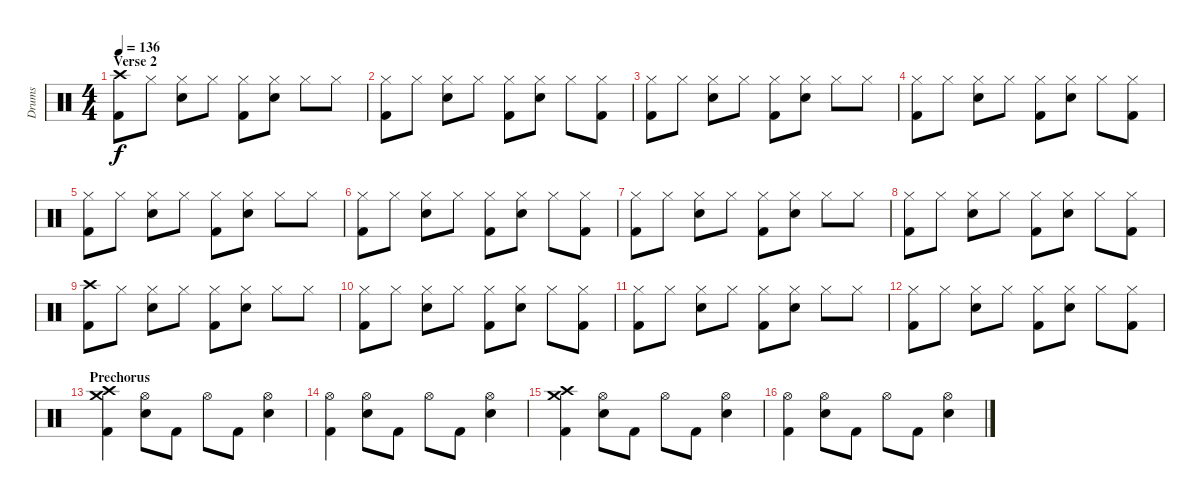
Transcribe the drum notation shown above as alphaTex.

\track ("Drums" "Drums") {instrument percussion}
\staff {score}
\articulation defaults
\ts (4 4)
\section ("" "Verse 2")
\tempo 136
\clef neutral
\ks c
("Crash high (hit)" "Kick (hit) 2").8{dy f} "Hi-Hat (closed)".8 ("Hi-Hat (closed)" "Electric Snare (hit)").8 "Hi-Hat (closed)".8 ("Hi-Hat (closed)" "Kick (hit) 2").8 ("Hi-Hat (closed)" "Electric Snare (hit)").8 "Hi-Hat (closed)".8 "Hi-Hat (closed)".8 |
("Hi-Hat (closed)" "Kick (hit) 2").8 "Hi-Hat (closed)".8 ("Hi-Hat (closed)" "Electric Snare (hit)").8 "Hi-Hat (closed)".8 ("Hi-Hat (closed)" "Kick (hit) 2").8 ("Hi-Hat (closed)" "Electric Snare (hit)").8 "Hi-Hat (closed)".8 ("Hi-Hat (closed)" "Kick (hit) 2").8 |
("Hi-Hat (closed)" "Kick (hit) 2").8 "Hi-Hat (closed)".8 ("Hi-Hat (closed)" "Electric Snare (hit)").8 "Hi-Hat (closed)".8 ("Hi-Hat (closed)" "Kick (hit) 2").8 ("Hi-Hat (closed)" "Electric Snare (hit)").8 "Hi-Hat (closed)".8 "Hi-Hat (closed)".8 |
("Hi-Hat (closed)" "Kick (hit) 2").8 "Hi-Hat (closed)".8 ("Hi-Hat (closed)" "Electric Snare (hit)").8 "Hi-Hat (closed)".8 ("Hi-Hat (closed)" "Kick (hit) 2").8 ("Hi-Hat (closed)" "Electric Snare (hit)").8 "Hi-Hat (closed)".8 ("Hi-Hat (closed)" "Kick (hit) 2").8 |
("Hi-Hat (closed)" "Kick (hit) 2").8 "Hi-Hat (closed)".8 ("Hi-Hat (closed)" "Electric Snare (hit)").8 "Hi-Hat (closed)".8 ("Hi-Hat (closed)" "Kick (hit) 2").8 ("Hi-Hat (closed)" "Electric Snare (hit)").8 "Hi-Hat (closed)".8 "Hi-Hat (closed)".8 |
("Hi-Hat (closed)" "Kick (hit) 2").8 "Hi-Hat (closed)".8 ("Hi-Hat (closed)" "Electric Snare (hit)").8 "Hi-Hat (closed)".8 ("Hi-Hat (closed)" "Kick (hit) 2").8 ("Hi-Hat (closed)" "Electric Snare (hit)").8 "Hi-Hat (closed)".8 ("Hi-Hat (closed)" "Kick (hit) 2").8 |
("Hi-Hat (closed)" "Kick (hit) 2").8 "Hi-Hat (closed)".8 ("Hi-Hat (closed)" "Electric Snare (hit)").8 "Hi-Hat (closed)".8 ("Hi-Hat (closed)" "Kick (hit) 2").8 ("Hi-Hat (closed)" "Electric Snare (hit)").8 "Hi-Hat (closed)".8 "Hi-Hat (closed)".8 |
("Hi-Hat (closed)" "Kick (hit) 2").8 "Hi-Hat (closed)".8 ("Hi-Hat (closed)" "Electric Snare (hit)").8 "Hi-Hat (closed)".8 ("Hi-Hat (closed)" "Kick (hit) 2").8 ("Hi-Hat (closed)" "Electric Snare (hit)").8 "Hi-Hat (closed)".8 ("Hi-Hat (closed)" "Kick (hit) 2").8 |
("Crash high (hit)" "Kick (hit) 2").8 "Hi-Hat (closed)".8 ("Hi-Hat (closed)" "Electric Snare (hit)").8 "Hi-Hat (closed)".8 ("Hi-Hat (closed)" "Kick (hit) 2").8 ("Hi-Hat (closed)" "Electric Snare (hit)").8 "Hi-Hat (closed)".8 "Hi-Hat (closed)".8 |
("Hi-Hat (closed)" "Kick (hit) 2").8 "Hi-Hat (closed)".8 ("Hi-Hat (closed)" "Electric Snare (hit)").8 "Hi-Hat (closed)".8 ("Hi-Hat (closed)" "Kick (hit) 2").8 ("Hi-Hat (closed)" "Electric Snare (hit)").8 "Hi-Hat (closed)".8 ("Hi-Hat (closed)" "Kick (hit) 2").8 |
("Hi-Hat (closed)" "Kick (hit) 2").8 "Hi-Hat (closed)".8 ("Hi-Hat (closed)" "Electric Snare (hit)").8 "Hi-Hat (closed)".8 ("Hi-Hat (closed)" "Kick (hit) 2").8 ("Hi-Hat (closed)" "Electric Snare (hit)").8 "Hi-Hat (closed)".8 "Hi-Hat (closed)".8 |
("Hi-Hat (closed)" "Kick (hit) 2").8 "Hi-Hat (closed)".8 ("Hi-Hat (closed)" "Electric Snare (hit)").8 "Hi-Hat (closed)".8 ("Hi-Hat (closed)" "Kick (hit) 2").8 ("Hi-Hat (closed)" "Electric Snare (hit)").8 "Hi-Hat (closed)".8 ("Hi-Hat (closed)" "Kick (hit) 2").8 |
\section ("" "Prechorus")
("Crash medium (hit)" "Crash high (hit)" "Kick (hit) 2").4 ("Hi-Hat (open)" "Electric Snare (hit)").8 "Kick (hit) 2".8 "Hi-Hat (open)".8 "Kick (hit) 2".8 ("Hi-Hat (open)" "Electric Snare (hit)").4 |
("Hi-Hat (open)" "Kick (hit) 2").4 ("Hi-Hat (open)" "Electric Snare (hit)").8 "Kick (hit) 2".8 "Hi-Hat (open)".8 "Kick (hit) 2".8 ("Hi-Hat (open)" "Electric Snare (hit)").4 |
("Crash medium (hit)" "Crash high (hit)" "Kick (hit) 2").4 ("Hi-Hat (open)" "Electric Snare (hit)").8 "Kick (hit) 2".8 "Hi-Hat (open)".8 "Kick (hit) 2".8 ("Hi-Hat (open)" "Electric Snare (hit)").4 |
("Hi-Hat (open)" "Kick (hit) 2").4 ("Hi-Hat (open)" "Electric Snare (hit)").8 "Kick (hit) 2".8 "Hi-Hat (open)".8 "Kick (hit) 2".8 ("Hi-Hat (open)" "Electric Snare (hit)").4
